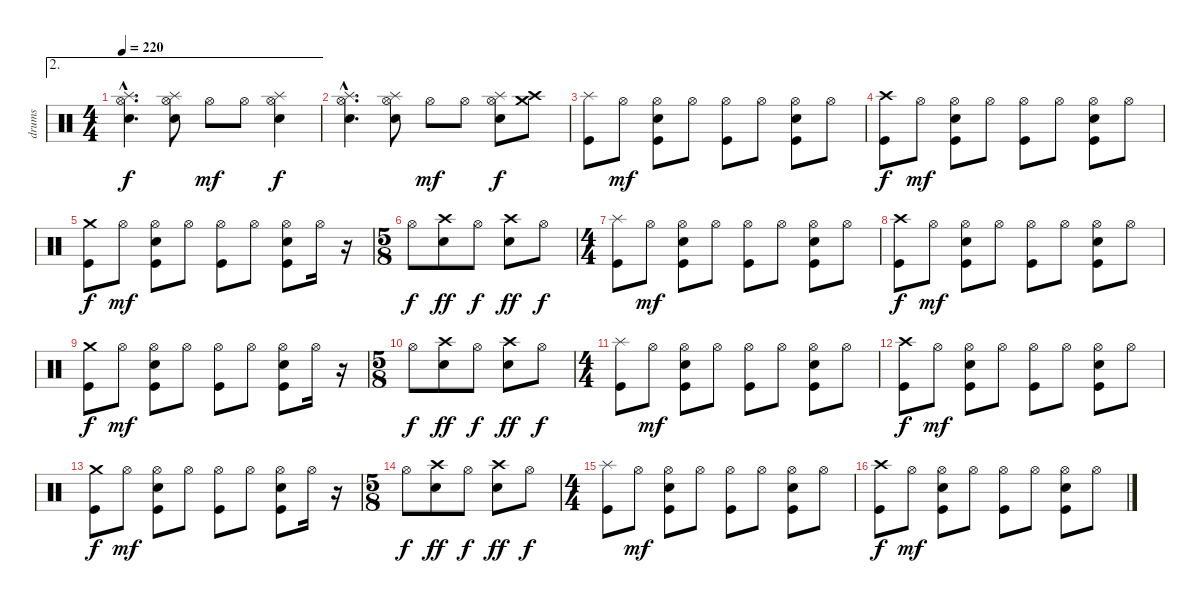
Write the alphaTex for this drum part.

\track ("drums" "drums") {instrument percussion}
\staff {score}
\articulation defaults
\ae 2
\ts (4 4)
\tempo 220
\clef neutral
\ks c
("Splash (hit)"{hac} "Hi-Hat (open)"{hac} "Snare (hit) 2"{hac}).4{d dy f} ("Splash (hit)" "Hi-Hat (open)" "Snare (hit) 2").8 "Hi-Hat (open)".8{dy mf} "Hi-Hat (open)".8 ("Splash (hit)" "Hi-Hat (open)" "Snare (hit) 2").4{dy f} |
("Splash (hit)"{hac} "Hi-Hat (open)"{hac} "Snare (hit) 2"{hac}).4{d} ("Splash (hit)" "Hi-Hat (open)" "Snare (hit) 2").8 "Hi-Hat (open)".8{dy mf} "Hi-Hat (open)".8 ("Splash (hit)" "Hi-Hat (open)" "Snare (hit) 2").8{dy f} ("Crash medium (hit)" "Crash high (hit)").8 |
("Splash (hit)" "Kick (hit)").8 "Hi-Hat (open)".8{dy mf} ("Hi-Hat (open)" "Snare (hit) 2" "Kick (hit)").8 "Hi-Hat (open)".8 ("Hi-Hat (open)" "Kick (hit)").8 "Hi-Hat (open)".8 ("Hi-Hat (open)" "Snare (hit) 2" "Kick (hit)").8 "Hi-Hat (open)".8 |
("Crash high (hit)" "Kick (hit)").8{dy f} "Hi-Hat (open)".8{dy mf} ("Hi-Hat (open)" "Snare (hit) 2" "Kick (hit)").8 "Hi-Hat (open)".8 ("Hi-Hat (open)" "Kick (hit)").8 "Hi-Hat (open)".8 ("Hi-Hat (open)" "Snare (hit) 2" "Kick (hit)").8 "Hi-Hat (open)".8 |
("Crash medium (hit)" "Kick (hit)").8{dy f} "Hi-Hat (open)".8{dy mf} ("Hi-Hat (open)" "Snare (hit) 2" "Kick (hit)").8 "Hi-Hat (open)".8 ("Hi-Hat (open)" "Kick (hit)").8 "Hi-Hat (open)".8 ("Hi-Hat (open)" "Snare (hit) 2" "Kick (hit)").8 "Hi-Hat (open)".16 r.16 |
\ts (5 8)
"Hi-Hat (open)".8{dy f} ("Crash high (hit)" "Snare (hit) 2").8{dy ff} "Hi-Hat (open)".8{dy f} ("Crash high (hit)" "Snare (hit) 2").8{dy ff} "Hi-Hat (open)".8{dy f} |
\ts (4 4)
("Splash (hit)" "Kick (hit)").8 "Hi-Hat (open)".8{dy mf} ("Hi-Hat (open)" "Snare (hit) 2" "Kick (hit)").8 "Hi-Hat (open)".8 ("Hi-Hat (open)" "Kick (hit)").8 "Hi-Hat (open)".8 ("Hi-Hat (open)" "Snare (hit) 2" "Kick (hit)").8 "Hi-Hat (open)".8 |
("Crash high (hit)" "Kick (hit)").8{dy f} "Hi-Hat (open)".8{dy mf} ("Hi-Hat (open)" "Snare (hit) 2" "Kick (hit)").8 "Hi-Hat (open)".8 ("Hi-Hat (open)" "Kick (hit)").8 "Hi-Hat (open)".8 ("Hi-Hat (open)" "Snare (hit) 2" "Kick (hit)").8 "Hi-Hat (open)".8 |
("Crash medium (hit)" "Kick (hit)").8{dy f} "Hi-Hat (open)".8{dy mf} ("Hi-Hat (open)" "Snare (hit) 2" "Kick (hit)").8 "Hi-Hat (open)".8 ("Hi-Hat (open)" "Kick (hit)").8 "Hi-Hat (open)".8 ("Hi-Hat (open)" "Snare (hit) 2" "Kick (hit)").8 "Hi-Hat (open)".16 r.16 |
\ts (5 8)
"Hi-Hat (open)".8{dy f} ("Crash high (hit)" "Snare (hit) 2").8{dy ff} "Hi-Hat (open)".8{dy f} ("Crash high (hit)" "Snare (hit) 2").8{dy ff} "Hi-Hat (open)".8{dy f} |
\ts (4 4)
("Splash (hit)" "Kick (hit)").8 "Hi-Hat (open)".8{dy mf} ("Hi-Hat (open)" "Snare (hit) 2" "Kick (hit)").8 "Hi-Hat (open)".8 ("Hi-Hat (open)" "Kick (hit)").8 "Hi-Hat (open)".8 ("Hi-Hat (open)" "Snare (hit) 2" "Kick (hit)").8 "Hi-Hat (open)".8 |
("Crash high (hit)" "Kick (hit)").8{dy f} "Hi-Hat (open)".8{dy mf} ("Hi-Hat (open)" "Snare (hit) 2" "Kick (hit)").8 "Hi-Hat (open)".8 ("Hi-Hat (open)" "Kick (hit)").8 "Hi-Hat (open)".8 ("Hi-Hat (open)" "Snare (hit) 2" "Kick (hit)").8 "Hi-Hat (open)".8 |
("Crash medium (hit)" "Kick (hit)").8{dy f} "Hi-Hat (open)".8{dy mf} ("Hi-Hat (open)" "Snare (hit) 2" "Kick (hit)").8 "Hi-Hat (open)".8 ("Hi-Hat (open)" "Kick (hit)").8 "Hi-Hat (open)".8 ("Hi-Hat (open)" "Snare (hit) 2" "Kick (hit)").8 "Hi-Hat (open)".16 r.16 |
\ts (5 8)
"Hi-Hat (open)".8{dy f} ("Crash high (hit)" "Snare (hit) 2").8{dy ff} "Hi-Hat (open)".8{dy f} ("Crash high (hit)" "Snare (hit) 2").8{dy ff} "Hi-Hat (open)".8{dy f} |
\ts (4 4)
("Splash (hit)" "Kick (hit)").8 "Hi-Hat (open)".8{dy mf} ("Hi-Hat (open)" "Snare (hit) 2" "Kick (hit)").8 "Hi-Hat (open)".8 ("Hi-Hat (open)" "Kick (hit)").8 "Hi-Hat (open)".8 ("Hi-Hat (open)" "Snare (hit) 2" "Kick (hit)").8 "Hi-Hat (open)".8 |
("Crash high (hit)" "Kick (hit)").8{dy f} "Hi-Hat (open)".8{dy mf} ("Hi-Hat (open)" "Snare (hit) 2" "Kick (hit)").8 "Hi-Hat (open)".8 ("Hi-Hat (open)" "Kick (hit)").8 "Hi-Hat (open)".8 ("Hi-Hat (open)" "Snare (hit) 2" "Kick (hit)").8 "Hi-Hat (open)".8
